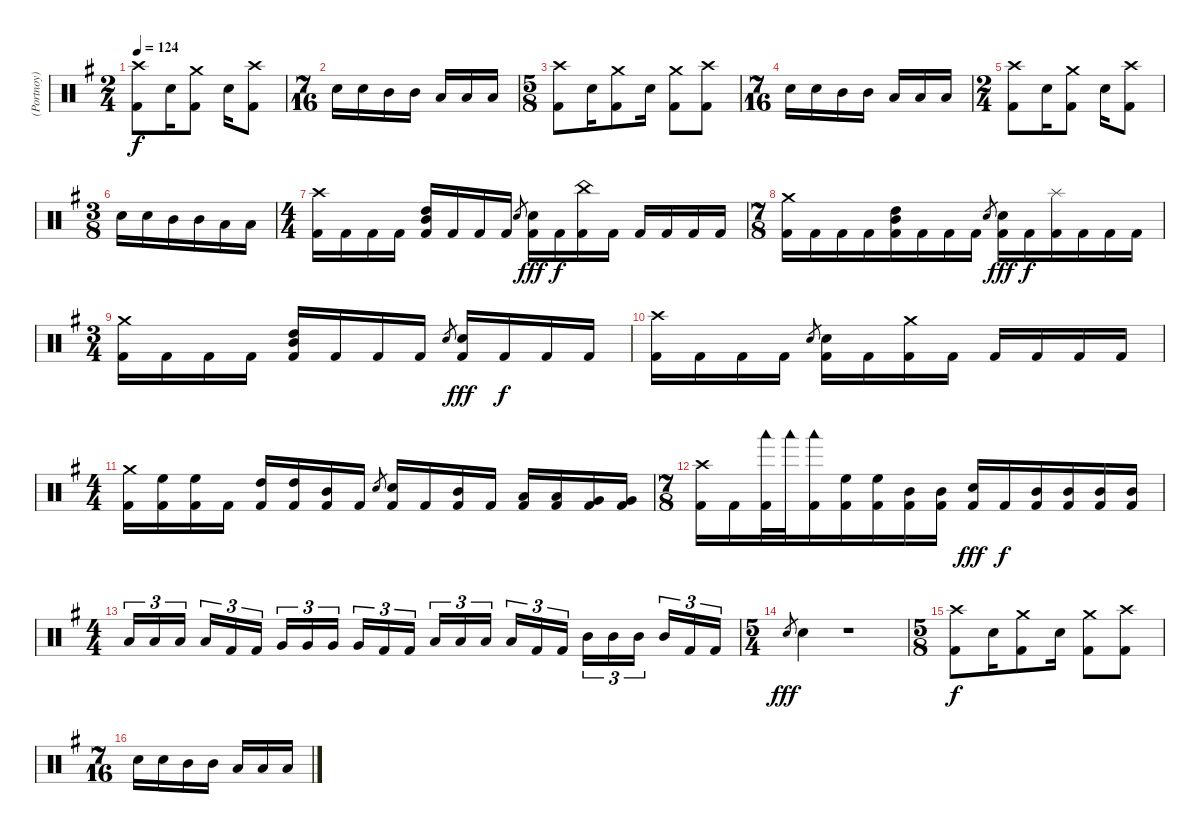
\track ("(Portnoy) Drums" "(Portnoy) ") {instrument percussion}
\staff {score}
\articulation defaults
\ts (2 4)
\tempo 124
\clef neutral
\ks g
("Crash high (hit)" "Kick (hit) 2").8{dy f} "Snare (hit) 2".16 ("Crash medium (hit)" "Kick (hit) 2").8 "Snare (hit) 2".16 ("Crash high (hit)" "Kick (hit) 2").8 |
\ts (7 16)
"Snare (hit) 2".16 "Snare (hit) 2".16 "Mid Tom (hit)".16 "Mid Tom (hit)".16 "Low Tom (hit)".16 "Low Tom (hit)".16 "Low Tom (hit)".16 |
\ts (5 8)
("Crash high (hit)" "Kick (hit) 2").8 "Snare (hit) 2".16 ("Crash medium (hit)" "Kick (hit) 2").8 "Snare (hit) 2".16 ("Crash medium (hit)" "Kick (hit) 2").8 ("Crash high (hit)" "Kick (hit) 2").8 |
\ts (7 16)
"Snare (hit) 2".16 "Snare (hit) 2".16 "Mid Tom (hit)".16 "Mid Tom (hit)".16 "Low Tom (hit)".16 "Low Tom (hit)".16 "Low Tom (hit)".16 |
\ts (2 4)
("Crash high (hit)" "Kick (hit) 2").8 "Snare (hit) 2".16 ("Crash medium (hit)" "Kick (hit) 2").8 "Snare (hit) 2".16 ("Crash high (hit)" "Kick (hit) 2").8 |
\ts (3 8)
"Snare (hit) 2".16 "Snare (hit) 2".16 "Mid Tom (hit)".16 "Mid Tom (hit)".16 "Low Tom (hit)".16 "Low Tom (hit)".16 |
\ts (4 4)
("Crash high (hit)" "Kick (hit) 2").16 "Kick (hit) 2".16 "Kick (hit) 2".16 "Kick (hit) 2".16 ("High Tom (hit)" "Mid Tom (hit)" "Kick (hit) 2").16 "Kick (hit) 2".16 "Kick (hit) 2".16 "Kick (hit) 2".16 "Snare (hit) 2".8{gr} ("Snare (hit) 2" "Kick (hit) 2").16{dy fff} "Kick (hit) 2".16{dy f} ("China (hit)" "Kick (hit) 2").16 "Kick (hit) 2".16 "Kick (hit) 2".16 "Kick (hit) 2".16 "Kick (hit) 2".16 "Kick (hit) 2".16 |
\ts (7 8)
("Crash medium (hit)" "Kick (hit) 2").16 "Kick (hit) 2".16 "Kick (hit) 2".16 "Kick (hit) 2".16 ("High Tom (hit)" "Mid Tom (hit)" "Kick (hit) 2").16 "Kick (hit) 2".16 "Kick (hit) 2".16 "Kick (hit) 2".16 "Snare (hit) 2".8{gr} ("Snare (hit) 2" "Kick (hit) 2").16{dy fff} "Kick (hit) 2".16{dy f} ("Splash (hit)" "Kick (hit) 2").16 "Kick (hit) 2".16 "Kick (hit) 2".16 "Kick (hit) 2".16 |
\ts (3 4)
("Crash medium (hit)" "Kick (hit) 2").16 "Kick (hit) 2".16 "Kick (hit) 2".16 "Kick (hit) 2".16 ("High Tom (hit)" "Mid Tom (hit)" "Kick (hit) 2").16 "Kick (hit) 2".16 "Kick (hit) 2".16 "Kick (hit) 2".16 "Snare (hit) 2".8{gr} ("Snare (hit) 2" "Kick (hit) 2").16{dy fff} "Kick (hit) 2".16{dy f} "Kick (hit) 2".16 "Kick (hit) 2".16 |
("Crash high (hit)" "Kick (hit) 2").16 "Kick (hit) 2".16 "Kick (hit) 2".16 "Kick (hit) 2".16 "Snare (hit) 2".8{gr} ("Snare (hit) 2" "Kick (hit) 2").16 "Kick (hit) 2".16 ("Crash medium (hit)" "Kick (hit) 2").16 "Kick (hit) 2".16 "Kick (hit) 2".16 "Kick (hit) 2".16 "Kick (hit) 2".16 "Kick (hit) 2".16 |
\ts (4 4)
("Crash medium (hit)" "Kick (hit) 2").16 ("High Floor Tom (hit)" "Kick (hit) 2").16 ("High Floor Tom (hit)" "Kick (hit) 2").16 "Kick (hit) 2".16 ("High Tom (hit)" "Kick (hit) 2").16 ("High Tom (hit)" "Kick (hit) 2").16 ("Mid Tom (hit)" "Kick (hit) 2").16 "Kick (hit) 2".16 "Snare (hit) 2".8{gr} ("Snare (hit) 2" "Kick (hit) 2").16 "Kick (hit) 2".16 ("Mid Tom (hit)" "Kick (hit) 2").16 "Kick (hit) 2".16 ("Low Tom (hit)" "Kick (hit) 2").16 ("Low Tom (hit)" "Kick (hit) 2").16 ("Very Low Tom (hit)" "Kick (hit) 2").16 ("Very Low Tom (hit)" "Kick (hit) 2").16 |
\ts (7 8)
("Crash high (hit)" "Kick (hit) 2").16 "Kick (hit) 2".16 ("Woodblock low (hit)" "Kick (hit) 2").32 "Woodblock low (hit)".32 ("Woodblock low (hit)" "Kick (hit) 2").16 ("High Floor Tom (hit)" "Kick (hit) 2").16 ("High Floor Tom (hit)" "Kick (hit) 2").16 ("Mid Tom (hit)" "Kick (hit) 2").16 ("Mid Tom (hit)" "Kick (hit) 2").16 ("Snare (hit) 2" "Kick (hit) 2").16{dy fff} "Kick (hit) 2".16{dy f} ("Mid Tom (hit)" "Kick (hit) 2").16 ("Mid Tom (hit)" "Kick (hit) 2").16 ("Mid Tom (hit)" "Kick (hit) 2").16 ("Mid Tom (hit)" "Kick (hit) 2").16 |
\ts (4 4)
"Low Floor Tom (hit)".16{tu (3 2)} "Low Floor Tom (hit)".16{tu (3 2)} "Low Floor Tom (hit)".16{tu (3 2) beam splitsecondary} "Low Floor Tom (hit)".16{tu (3 2)} "Kick (hit) 2".16{tu (3 2)} "Kick (hit) 2".16{tu (3 2)} "Very Low Tom (hit)".16{tu (3 2)} "Very Low Tom (hit)".16{tu (3 2)} "Very Low Tom (hit)".16{tu (3 2) beam splitsecondary} "Very Low Tom (hit)".16{tu (3 2)} "Kick (hit) 2".16{tu (3 2)} "Kick (hit) 2".16{tu (3 2)} "Low Tom (hit)".16{tu (3 2)} "Low Tom (hit)".16{tu (3 2)} "Low Tom (hit)".16{tu (3 2) beam splitsecondary} "Low Tom (hit)".16{tu (3 2)} "Kick (hit) 2".16{tu (3 2)} "Kick (hit) 2".16{tu (3 2)} "Mid Tom (hit)".16{tu (3 2)} "Mid Tom (hit)".16{tu (3 2)} "Mid Tom (hit)".16{tu (3 2) beam splitsecondary} "Mid Tom (hit)".16{tu (3 2)} "Kick (hit) 2".16{tu (3 2)} "Kick (hit) 2".16{tu (3 2)} |
\ts (5 4)
"Snare (hit) 2".8{gr dy fff} "Snare (hit) 2".4 r.1 |
\ts (5 8)
("Crash high (hit)" "Kick (hit) 2").8{dy f} "Snare (hit) 2".16 ("Crash medium (hit)" "Kick (hit) 2").8 "Snare (hit) 2".16 ("Crash medium (hit)" "Kick (hit) 2").8 ("Crash high (hit)" "Kick (hit) 2").8 |
\ts (7 16)
"Snare (hit) 2".16 "Snare (hit) 2".16 "Mid Tom (hit)".16 "Mid Tom (hit)".16 "Low Tom (hit)".16 "Low Tom (hit)".16 "Low Tom (hit)".16
